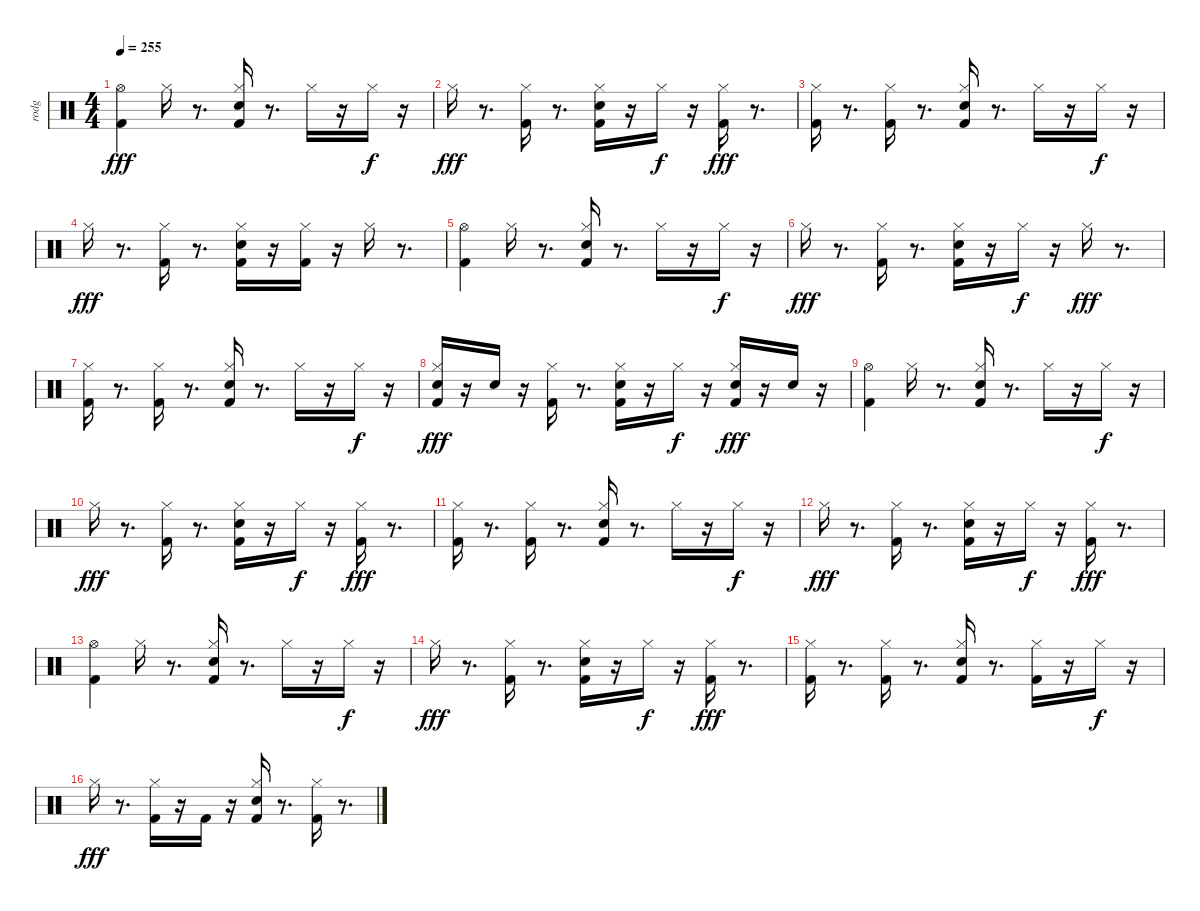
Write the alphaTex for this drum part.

\track ("rodg" "rodg") {instrument percussion}
\staff {score}
\articulation defaults
\ts (4 4)
\tempo 255
\clef neutral
\ks c
("Hi-Hat (open)" "Kick (hit) 2").4{dy fff} "Hi-Hat (closed)".16 r.8{d} ("Kick (hit) 2" "Electric Snare (hit)" "Hi-Hat (closed)").16 r.8{d} "Hi-Hat (closed)".16 r.16 "Hi-Hat (closed)".16{dy f} r.16 |
"Hi-Hat (closed)".16{dy fff} r.8{d} ("Kick (hit) 2" "Hi-Hat (closed)").16 r.8{d} ("Kick (hit) 2" "Electric Snare (hit)" "Hi-Hat (closed)").16 r.16 "Hi-Hat (closed)".16{dy f} r.16 ("Kick (hit) 2" "Hi-Hat (closed)").16{dy fff} r.8{d} |
("Kick (hit) 2" "Hi-Hat (closed)").16 r.8{d} ("Hi-Hat (closed)" "Kick (hit) 2").16 r.8{d} ("Kick (hit) 2" "Electric Snare (hit)" "Hi-Hat (closed)").16 r.8{d} "Hi-Hat (closed)".16 r.16 "Hi-Hat (closed)".16{dy f} r.16 |
"Hi-Hat (closed)".16{dy fff} r.8{d} ("Kick (hit) 2" "Hi-Hat (closed)").16 r.8{d} ("Kick (hit) 2" "Electric Snare (hit)" "Hi-Hat (closed)").16 r.16 ("Hi-Hat (closed)" "Kick (hit) 2").16 r.16 "Hi-Hat (closed)".16 r.8{d} |
("Kick (hit) 2" "Hi-Hat (open)").4 "Hi-Hat (closed)".16 r.8{d} ("Kick (hit) 2" "Electric Snare (hit)" "Hi-Hat (closed)").16 r.8{d} "Hi-Hat (closed)".16 r.16 "Hi-Hat (closed)".16{dy f} r.16 |
"Hi-Hat (closed)".16{dy fff} r.8{d} ("Kick (hit) 2" "Hi-Hat (closed)").16 r.8{d} ("Kick (hit) 2" "Electric Snare (hit)" "Hi-Hat (closed)").16 r.16 "Hi-Hat (closed)".16{dy f} r.16 "Hi-Hat (closed)".16{dy fff} r.8{d} |
("Kick (hit) 2" "Hi-Hat (closed)").16 r.8{d} ("Hi-Hat (closed)" "Kick (hit) 2").16 r.8{d} ("Kick (hit) 2" "Electric Snare (hit)" "Hi-Hat (closed)").16 r.8{d} "Hi-Hat (closed)".16 r.16 "Hi-Hat (closed)".16{dy f} r.16 |
("Hi-Hat (closed)" "Electric Snare (hit)" "Kick (hit) 2").16{dy fff} r.16 "Electric Snare (hit)".16 r.16 ("Hi-Hat (closed)" "Kick (hit) 2").16 r.8{d} ("Hi-Hat (closed)" "Electric Snare (hit)" "Kick (hit) 2").16 r.16 "Hi-Hat (closed)".16{dy f} r.16 ("Hi-Hat (closed)" "Electric Snare (hit)" "Kick (hit) 2").16{dy fff} r.16 "Electric Snare (hit)".16 r.16 |
("Hi-Hat (open)" "Kick (hit) 2").4 "Hi-Hat (closed)".16 r.8{d} ("Kick (hit) 2" "Electric Snare (hit)" "Hi-Hat (closed)").16 r.8{d} "Hi-Hat (closed)".16 r.16 "Hi-Hat (closed)".16{dy f} r.16 |
"Hi-Hat (closed)".16{dy fff} r.8{d} ("Kick (hit) 2" "Hi-Hat (closed)").16 r.8{d} ("Kick (hit) 2" "Electric Snare (hit)" "Hi-Hat (closed)").16 r.16 "Hi-Hat (closed)".16{dy f} r.16 ("Kick (hit) 2" "Hi-Hat (closed)").16{dy fff} r.8{d} |
("Kick (hit) 2" "Hi-Hat (closed)").16 r.8{d} ("Hi-Hat (closed)" "Kick (hit) 2").16 r.8{d} ("Kick (hit) 2" "Electric Snare (hit)" "Hi-Hat (closed)").16 r.8{d} "Hi-Hat (closed)".16 r.16 "Hi-Hat (closed)".16{dy f} r.16 |
"Hi-Hat (closed)".16{dy fff} r.8{d} ("Kick (hit) 2" "Hi-Hat (closed)").16 r.8{d} ("Kick (hit) 2" "Electric Snare (hit)" "Hi-Hat (closed)").16 r.16 "Hi-Hat (closed)".16{dy f} r.16 ("Hi-Hat (closed)" "Kick (hit) 2").16{dy fff} r.8{d} |
("Hi-Hat (open)" "Kick (hit) 2").4 "Hi-Hat (closed)".16 r.8{d} ("Kick (hit) 2" "Electric Snare (hit)" "Hi-Hat (closed)").16 r.8{d} "Hi-Hat (closed)".16 r.16 "Hi-Hat (closed)".16{dy f} r.16 |
"Hi-Hat (closed)".16{dy fff} r.8{d} ("Kick (hit) 2" "Hi-Hat (closed)").16 r.8{d} ("Kick (hit) 2" "Electric Snare (hit)" "Hi-Hat (closed)").16 r.16 "Hi-Hat (closed)".16{dy f} r.16 ("Kick (hit) 2" "Hi-Hat (closed)").16{dy fff} r.8{d} |
("Kick (hit) 2" "Hi-Hat (closed)").16 r.8{d} ("Hi-Hat (closed)" "Kick (hit) 2").16 r.8{d} ("Kick (hit) 2" "Electric Snare (hit)" "Hi-Hat (closed)").16 r.8{d} ("Hi-Hat (closed)" "Kick (hit) 2").16 r.16 "Hi-Hat (closed)".16{dy f} r.16 |
"Hi-Hat (closed)".16{dy fff} r.8{d} ("Kick (hit) 2" "Hi-Hat (closed)").16 r.16 "Kick (hit) 2".16 r.16 ("Kick (hit) 2" "Electric Snare (hit)" "Hi-Hat (closed)").16 r.8{d} ("Hi-Hat (closed)" "Kick (hit) 2").16 r.8{d}
